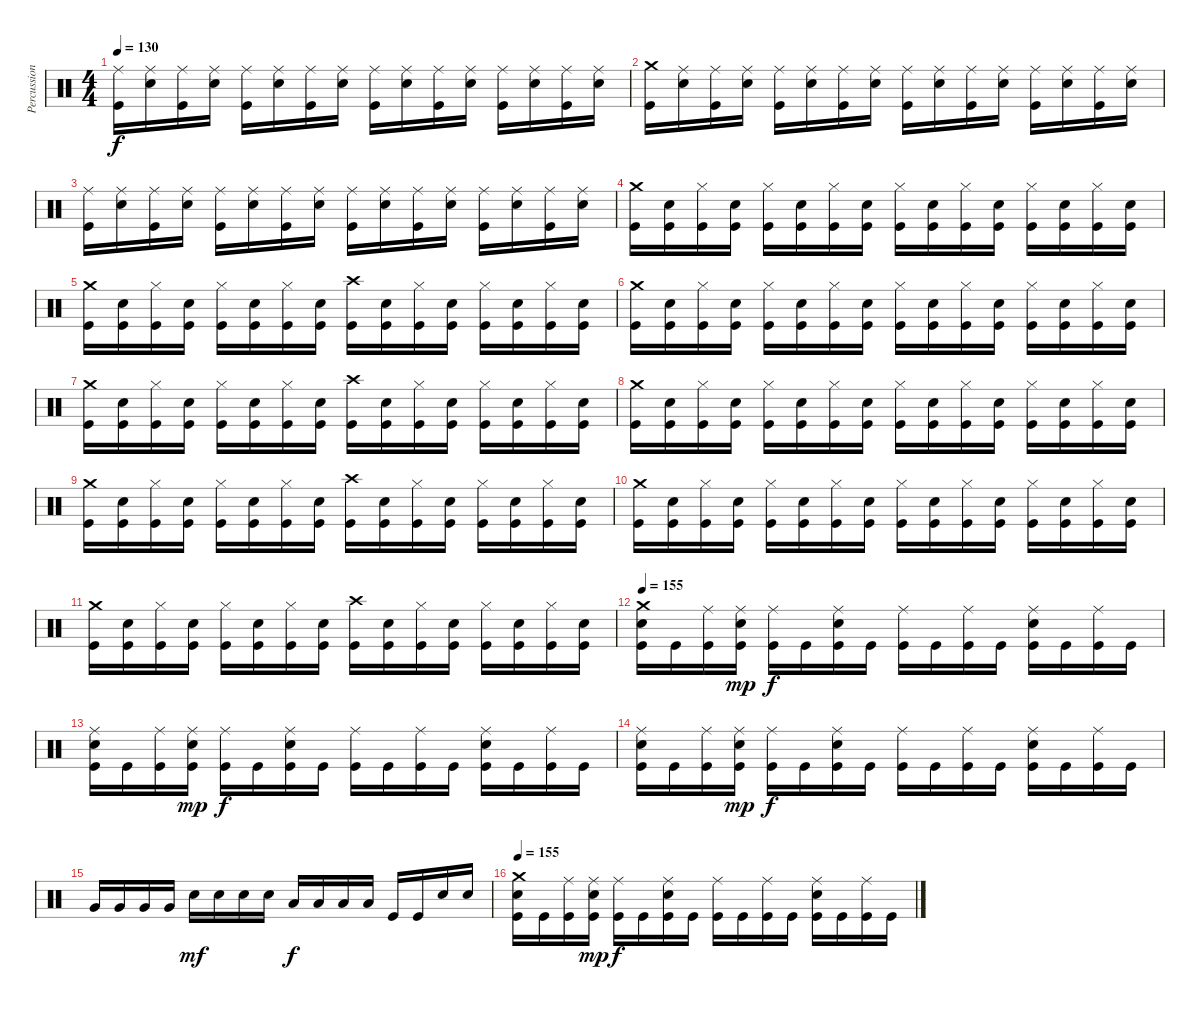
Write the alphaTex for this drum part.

\track ("Percussion" "Percussion") {instrument percussion}
\staff {score}
\articulation defaults
\ts (4 4)
\tempo 130
\clef neutral
\ks c
("Ride (middle)" "Kick (hit)").16{dy f} ("Ride (middle)" "Snare (hit) 2").16 ("Ride (middle)" "Kick (hit)").16 ("Ride (middle)" "Snare (hit) 2").16 ("Ride (middle)" "Kick (hit)").16 ("Ride (middle)" "Snare (hit) 2").16 ("Ride (middle)" "Kick (hit)").16 ("Ride (middle)" "Snare (hit) 2").16 ("Ride (middle)" "Kick (hit)").16 ("Ride (middle)" "Snare (hit) 2").16 ("Ride (middle)" "Kick (hit)").16 ("Ride (middle)" "Snare (hit) 2").16 ("Ride (middle)" "Kick (hit)").16 ("Ride (middle)" "Snare (hit) 2").16 ("Ride (middle)" "Kick (hit)").16 ("Ride (middle)" "Snare (hit) 2").16 |
("Crash medium (hit)" "Kick (hit)").16 ("Ride (middle)" "Snare (hit) 2").16 ("Ride (middle)" "Kick (hit)").16 ("Ride (middle)" "Snare (hit) 2").16 ("Ride (middle)" "Kick (hit)").16 ("Ride (middle)" "Snare (hit) 2").16 ("Ride (middle)" "Kick (hit)").16 ("Ride (middle)" "Snare (hit) 2").16 ("Ride (middle)" "Kick (hit)").16 ("Ride (middle)" "Snare (hit) 2").16 ("Ride (middle)" "Kick (hit)").16 ("Ride (middle)" "Snare (hit) 2").16 ("Ride (middle)" "Kick (hit)").16 ("Ride (middle)" "Snare (hit) 2").16 ("Ride (middle)" "Kick (hit)").16 ("Ride (middle)" "Snare (hit) 2").16 |
("Ride (middle)" "Kick (hit)").16 ("Ride (middle)" "Snare (hit) 2").16 ("Ride (middle)" "Kick (hit)").16 ("Ride (middle)" "Snare (hit) 2").16 ("Ride (middle)" "Kick (hit)").16 ("Ride (middle)" "Snare (hit) 2").16 ("Ride (middle)" "Kick (hit)").16 ("Ride (middle)" "Snare (hit) 2").16 ("Ride (middle)" "Kick (hit)").16 ("Ride (middle)" "Snare (hit) 2").16 ("Ride (middle)" "Kick (hit)").16 ("Ride (middle)" "Snare (hit) 2").16 ("Ride (middle)" "Kick (hit)").16 ("Ride (middle)" "Snare (hit) 2").16 ("Ride (middle)" "Kick (hit)").16 ("Ride (middle)" "Snare (hit) 2").16 |
("Crash medium (hit)" "Kick (hit)").16 ("Kick (hit)" "Snare (hit) 2").16 ("Hi-Hat (closed)" "Kick (hit)").16 ("Kick (hit)" "Snare (hit) 2").16 ("Hi-Hat (closed)" "Kick (hit)").16 ("Kick (hit)" "Snare (hit) 2").16 ("Hi-Hat (closed)" "Kick (hit)").16 ("Kick (hit)" "Snare (hit) 2").16 ("Hi-Hat (closed)" "Kick (hit)").16 ("Kick (hit)" "Snare (hit) 2").16 ("Hi-Hat (closed)" "Kick (hit)").16 ("Kick (hit)" "Snare (hit) 2").16 ("Hi-Hat (closed)" "Kick (hit)").16 ("Kick (hit)" "Snare (hit) 2").16 ("Hi-Hat (closed)" "Kick (hit)").16 ("Kick (hit)" "Snare (hit) 2").16 |
("Crash medium (hit)" "Kick (hit)").16 ("Kick (hit)" "Snare (hit) 2").16 ("Hi-Hat (closed)" "Kick (hit)").16 ("Kick (hit)" "Snare (hit) 2").16 ("Hi-Hat (closed)" "Kick (hit)").16 ("Kick (hit)" "Snare (hit) 2").16 ("Hi-Hat (closed)" "Kick (hit)").16 ("Kick (hit)" "Snare (hit) 2").16 ("Crash high (hit)" "Kick (hit)").16 ("Kick (hit)" "Snare (hit) 2").16 ("Hi-Hat (closed)" "Kick (hit)").16 ("Kick (hit)" "Snare (hit) 2").16 ("Hi-Hat (closed)" "Kick (hit)").16 ("Kick (hit)" "Snare (hit) 2").16 ("Hi-Hat (closed)" "Kick (hit)").16 ("Kick (hit)" "Snare (hit) 2").16 |
("Crash medium (hit)" "Kick (hit)").16 ("Kick (hit)" "Snare (hit) 2").16 ("Hi-Hat (closed)" "Kick (hit)").16 ("Kick (hit)" "Snare (hit) 2").16 ("Hi-Hat (closed)" "Kick (hit)").16 ("Kick (hit)" "Snare (hit) 2").16 ("Hi-Hat (closed)" "Kick (hit)").16 ("Kick (hit)" "Snare (hit) 2").16 ("Hi-Hat (closed)" "Kick (hit)").16 ("Kick (hit)" "Snare (hit) 2").16 ("Hi-Hat (closed)" "Kick (hit)").16 ("Kick (hit)" "Snare (hit) 2").16 ("Hi-Hat (closed)" "Kick (hit)").16 ("Kick (hit)" "Snare (hit) 2").16 ("Hi-Hat (closed)" "Kick (hit)").16 ("Kick (hit)" "Snare (hit) 2").16 |
("Crash medium (hit)" "Kick (hit)").16 ("Kick (hit)" "Snare (hit) 2").16 ("Hi-Hat (closed)" "Kick (hit)").16 ("Kick (hit)" "Snare (hit) 2").16 ("Hi-Hat (closed)" "Kick (hit)").16 ("Kick (hit)" "Snare (hit) 2").16 ("Hi-Hat (closed)" "Kick (hit)").16 ("Kick (hit)" "Snare (hit) 2").16 ("Crash high (hit)" "Kick (hit)").16 ("Kick (hit)" "Snare (hit) 2").16 ("Hi-Hat (closed)" "Kick (hit)").16 ("Kick (hit)" "Snare (hit) 2").16 ("Hi-Hat (closed)" "Kick (hit)").16 ("Kick (hit)" "Snare (hit) 2").16 ("Hi-Hat (closed)" "Kick (hit)").16 ("Kick (hit)" "Snare (hit) 2").16 |
("Crash medium (hit)" "Kick (hit)").16 ("Kick (hit)" "Snare (hit) 2").16 ("Hi-Hat (closed)" "Kick (hit)").16 ("Kick (hit)" "Snare (hit) 2").16 ("Hi-Hat (closed)" "Kick (hit)").16 ("Kick (hit)" "Snare (hit) 2").16 ("Hi-Hat (closed)" "Kick (hit)").16 ("Kick (hit)" "Snare (hit) 2").16 ("Hi-Hat (closed)" "Kick (hit)").16 ("Kick (hit)" "Snare (hit) 2").16 ("Hi-Hat (closed)" "Kick (hit)").16 ("Kick (hit)" "Snare (hit) 2").16 ("Hi-Hat (closed)" "Kick (hit)").16 ("Kick (hit)" "Snare (hit) 2").16 ("Hi-Hat (closed)" "Kick (hit)").16 ("Kick (hit)" "Snare (hit) 2").16 |
("Crash medium (hit)" "Kick (hit)").16 ("Kick (hit)" "Snare (hit) 2").16 ("Hi-Hat (closed)" "Kick (hit)").16 ("Kick (hit)" "Snare (hit) 2").16 ("Hi-Hat (closed)" "Kick (hit)").16 ("Kick (hit)" "Snare (hit) 2").16 ("Hi-Hat (closed)" "Kick (hit)").16 ("Kick (hit)" "Snare (hit) 2").16 ("Crash high (hit)" "Kick (hit)").16 ("Kick (hit)" "Snare (hit) 2").16 ("Hi-Hat (closed)" "Kick (hit)").16 ("Kick (hit)" "Snare (hit) 2").16 ("Hi-Hat (closed)" "Kick (hit)").16 ("Kick (hit)" "Snare (hit) 2").16 ("Hi-Hat (closed)" "Kick (hit)").16 ("Kick (hit)" "Snare (hit) 2").16 |
("Crash medium (hit)" "Kick (hit)").16 ("Kick (hit)" "Snare (hit) 2").16 ("Hi-Hat (closed)" "Kick (hit)").16 ("Kick (hit)" "Snare (hit) 2").16 ("Hi-Hat (closed)" "Kick (hit)").16 ("Kick (hit)" "Snare (hit) 2").16 ("Hi-Hat (closed)" "Kick (hit)").16 ("Kick (hit)" "Snare (hit) 2").16 ("Hi-Hat (closed)" "Kick (hit)").16 ("Kick (hit)" "Snare (hit) 2").16 ("Hi-Hat (closed)" "Kick (hit)").16 ("Kick (hit)" "Snare (hit) 2").16 ("Hi-Hat (closed)" "Kick (hit)").16 ("Kick (hit)" "Snare (hit) 2").16 ("Hi-Hat (closed)" "Kick (hit)").16 ("Kick (hit)" "Snare (hit) 2").16 |
("Crash medium (hit)" "Kick (hit)").16 ("Kick (hit)" "Snare (hit) 2").16 ("Hi-Hat (closed)" "Kick (hit)").16 ("Kick (hit)" "Snare (hit) 2").16 ("Hi-Hat (closed)" "Kick (hit)").16 ("Kick (hit)" "Snare (hit) 2").16 ("Hi-Hat (closed)" "Kick (hit)").16 ("Kick (hit)" "Snare (hit) 2").16 ("Crash high (hit)" "Kick (hit)").16 ("Kick (hit)" "Snare (hit) 2").16 ("Hi-Hat (closed)" "Kick (hit)").16 ("Kick (hit)" "Snare (hit) 2").16 ("Hi-Hat (closed)" "Kick (hit)").16 ("Kick (hit)" "Snare (hit) 2").16 ("Hi-Hat (closed)" "Kick (hit)").16 ("Kick (hit)" "Snare (hit) 2").16 |
\tempo 155
("Crash medium (hit)" "Kick (hit)" "Snare (hit) 2").16 "Kick (hit)".16 ("Ride (middle)" "Kick (hit)").16 ("Ride (middle)" "Kick (hit)" "Snare (hit) 2").16{dy mp} ("Ride (middle)" "Kick (hit)").16{dy f} "Kick (hit)".16 ("Ride (middle)" "Kick (hit)" "Snare (hit) 2").16 "Kick (hit)".16 ("Ride (middle)" "Kick (hit)").16 "Kick (hit)".16 ("Ride (middle)" "Kick (hit)").16 "Kick (hit)".16 ("Ride (middle)" "Kick (hit)" "Snare (hit) 2").16 "Kick (hit)".16 ("Ride (middle)" "Kick (hit)").16 "Kick (hit)".16 |
("Ride (middle)" "Kick (hit)" "Snare (hit) 2").16 "Kick (hit)".16 ("Ride (middle)" "Kick (hit)").16 ("Ride (middle)" "Kick (hit)" "Snare (hit) 2").16{dy mp} ("Ride (middle)" "Kick (hit)").16{dy f} "Kick (hit)".16 ("Ride (middle)" "Kick (hit)" "Snare (hit) 2").16 "Kick (hit)".16 ("Ride (middle)" "Kick (hit)").16 "Kick (hit)".16 ("Ride (middle)" "Kick (hit)").16 "Kick (hit)".16 ("Ride (middle)" "Kick (hit)" "Snare (hit) 2").16 "Kick (hit)".16 ("Ride (middle)" "Kick (hit)").16 "Kick (hit)".16 |
("Ride (middle)" "Kick (hit)" "Snare (hit) 2").16 "Kick (hit)".16 ("Ride (middle)" "Kick (hit)").16 ("Ride (middle)" "Kick (hit)" "Snare (hit) 2").16{dy mp} ("Ride (middle)" "Kick (hit)").16{dy f} "Kick (hit)".16 ("Ride (middle)" "Kick (hit)" "Snare (hit) 2").16 "Kick (hit)".16 ("Ride (middle)" "Kick (hit)").16 "Kick (hit)".16 ("Ride (middle)" "Kick (hit)").16 "Kick (hit)".16 ("Ride (middle)" "Kick (hit)" "Snare (hit) 2").16 "Kick (hit)".16 ("Ride (middle)" "Kick (hit)").16 "Kick (hit)".16 |
"Very Low Tom (hit)".16 "Very Low Tom (hit)".16 "Very Low Tom (hit)".16 "Very Low Tom (hit)".16 "Snare (hit) 2".16{dy mf} "Snare (hit) 2".16 "Snare (hit) 2".16 "Snare (hit) 2".16 "Low Floor Tom (hit)".16{dy f} "Low Floor Tom (hit)".16 "Low Floor Tom (hit)".16 "Low Floor Tom (hit)".16 "Kick (hit)".16 "Kick (hit)".16 "Snare (hit) 2".16 "Snare (hit) 2".16 |
\tempo 155
("Crash medium (hit)" "Kick (hit)" "Snare (hit) 2").16 "Kick (hit)".16 ("Ride (middle)" "Kick (hit)").16 ("Ride (middle)" "Kick (hit)" "Snare (hit) 2").16{dy mp} ("Ride (middle)" "Kick (hit)").16{dy f} "Kick (hit)".16 ("Ride (middle)" "Kick (hit)" "Snare (hit) 2").16 "Kick (hit)".16 ("Ride (middle)" "Kick (hit)").16 "Kick (hit)".16 ("Ride (middle)" "Kick (hit)").16 "Kick (hit)".16 ("Ride (middle)" "Kick (hit)" "Snare (hit) 2").16 "Kick (hit)".16 ("Ride (middle)" "Kick (hit)").16 "Kick (hit)".16
